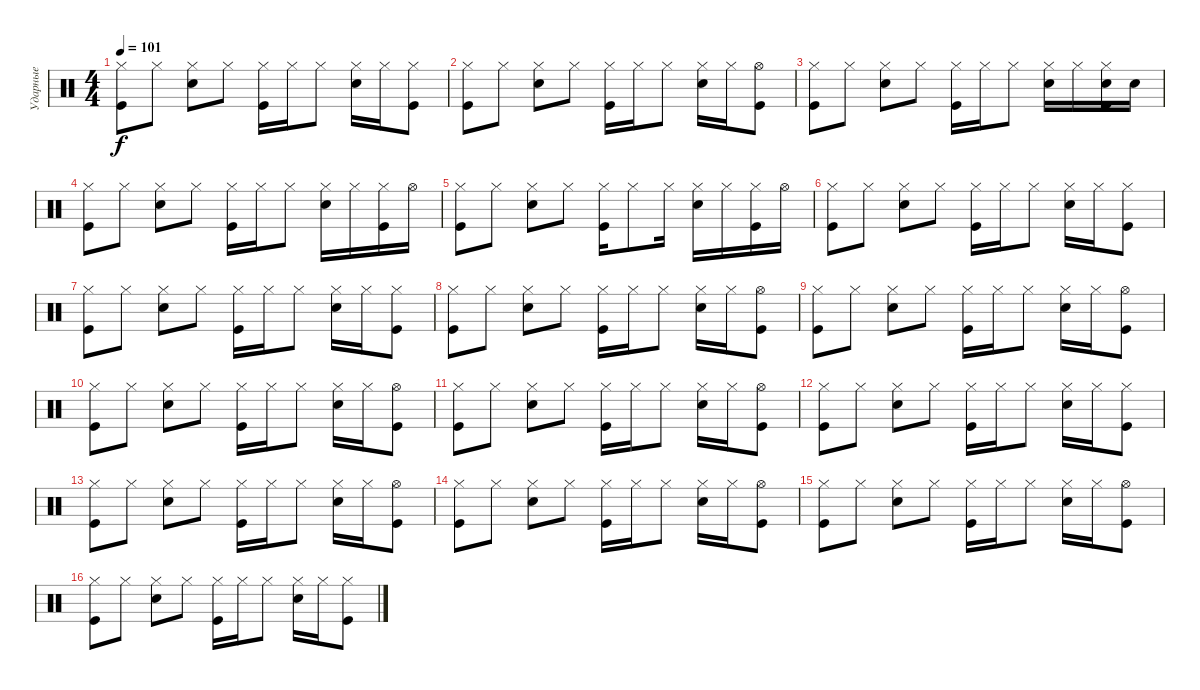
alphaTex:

\track ("Ударные" "Ударные") {instrument percussion}
\staff {score}
\articulation defaults
\ts (4 4)
\tempo 101
\clef neutral
\ks c
("Hi-Hat (closed)" "Kick (hit)").8{dy f} "Hi-Hat (closed)".8 ("Hi-Hat (closed)" "Snare (hit) 2").8 "Hi-Hat (closed)".8 ("Hi-Hat (closed)" "Kick (hit)").16 "Hi-Hat (closed)".16 "Hi-Hat (closed)".8 ("Snare (hit) 2" "Hi-Hat (closed)").16 "Hi-Hat (closed)".16 ("Hi-Hat (closed)" "Kick (hit)").8 |
("Hi-Hat (closed)" "Kick (hit)").8 "Hi-Hat (closed)".8 ("Hi-Hat (closed)" "Snare (hit) 2").8 "Hi-Hat (closed)".8 ("Hi-Hat (closed)" "Kick (hit)").16 "Hi-Hat (closed)".16 "Hi-Hat (closed)".8 ("Snare (hit) 2" "Hi-Hat (closed)").16 "Hi-Hat (closed)".16 ("Hi-Hat (open)" "Kick (hit)").8 |
("Hi-Hat (closed)" "Kick (hit)").8 "Hi-Hat (closed)".8 ("Hi-Hat (closed)" "Snare (hit) 2").8 "Hi-Hat (closed)".8 ("Hi-Hat (closed)" "Kick (hit)").16 "Hi-Hat (closed)".16 "Hi-Hat (closed)".8 ("Snare (hit) 2" "Hi-Hat (closed)").16 "Hi-Hat (closed)".16 ("Hi-Hat (closed)" "Snare (hit) 2" "Kick (hit)").16 "Snare (hit) 2".16 |
("Hi-Hat (closed)" "Kick (hit)").8 "Hi-Hat (closed)".8 ("Hi-Hat (closed)" "Snare (hit) 2").8 "Hi-Hat (closed)".8 ("Hi-Hat (closed)" "Kick (hit)").16 "Hi-Hat (closed)".16 "Hi-Hat (closed)".8 ("Snare (hit) 2" "Hi-Hat (closed)").16 "Hi-Hat (closed)".16 ("Hi-Hat (closed)" "Kick (hit)").16 "Hi-Hat (open)".16 |
("Hi-Hat (closed)" "Kick (hit)").8 "Hi-Hat (closed)".8 ("Hi-Hat (closed)" "Snare (hit) 2").8 "Hi-Hat (closed)".8 ("Hi-Hat (closed)" "Kick (hit)").16 "Hi-Hat (closed)".8 "Hi-Hat (closed)".16 ("Snare (hit) 2" "Hi-Hat (closed)").16 "Hi-Hat (closed)".16 ("Hi-Hat (closed)" "Kick (hit)").16 "Hi-Hat (open)".16 |
("Hi-Hat (closed)" "Kick (hit)").8 "Hi-Hat (closed)".8 ("Hi-Hat (closed)" "Snare (hit) 2").8 "Hi-Hat (closed)".8 ("Hi-Hat (closed)" "Kick (hit)").16 "Hi-Hat (closed)".16 "Hi-Hat (closed)".8 ("Snare (hit) 2" "Hi-Hat (closed)").16 "Hi-Hat (closed)".16 ("Hi-Hat (closed)" "Kick (hit)").8 |
("Hi-Hat (closed)" "Kick (hit)").8 "Hi-Hat (closed)".8 ("Hi-Hat (closed)" "Snare (hit) 2").8 "Hi-Hat (closed)".8 ("Hi-Hat (closed)" "Kick (hit)").16 "Hi-Hat (closed)".16 "Hi-Hat (closed)".8 ("Snare (hit) 2" "Hi-Hat (closed)").16 "Hi-Hat (closed)".16 ("Hi-Hat (closed)" "Kick (hit)").8 |
("Hi-Hat (closed)" "Kick (hit)").8 "Hi-Hat (closed)".8 ("Hi-Hat (closed)" "Snare (hit) 2").8 "Hi-Hat (closed)".8 ("Hi-Hat (closed)" "Kick (hit)").16 "Hi-Hat (closed)".16 "Hi-Hat (closed)".8 ("Snare (hit) 2" "Hi-Hat (closed)").16 "Hi-Hat (closed)".16 ("Hi-Hat (open)" "Kick (hit)").8 |
("Hi-Hat (closed)" "Kick (hit)").8 "Hi-Hat (closed)".8 ("Hi-Hat (closed)" "Snare (hit) 2").8 "Hi-Hat (closed)".8 ("Hi-Hat (closed)" "Kick (hit)").16 "Hi-Hat (closed)".16 "Hi-Hat (closed)".8 ("Snare (hit) 2" "Hi-Hat (closed)").16 "Hi-Hat (closed)".16 ("Hi-Hat (open)" "Kick (hit)").8 |
("Hi-Hat (closed)" "Kick (hit)").8 "Hi-Hat (closed)".8 ("Hi-Hat (closed)" "Snare (hit) 2").8 "Hi-Hat (closed)".8 ("Hi-Hat (closed)" "Kick (hit)").16 "Hi-Hat (closed)".16 "Hi-Hat (closed)".8 ("Snare (hit) 2" "Hi-Hat (closed)").16 "Hi-Hat (closed)".16 ("Hi-Hat (open)" "Kick (hit)").8 |
("Hi-Hat (closed)" "Kick (hit)").8 "Hi-Hat (closed)".8 ("Hi-Hat (closed)" "Snare (hit) 2").8 "Hi-Hat (closed)".8 ("Hi-Hat (closed)" "Kick (hit)").16 "Hi-Hat (closed)".16 "Hi-Hat (closed)".8 ("Snare (hit) 2" "Hi-Hat (closed)").16 "Hi-Hat (closed)".16 ("Hi-Hat (open)" "Kick (hit)").8 |
("Hi-Hat (closed)" "Kick (hit)").8 "Hi-Hat (closed)".8 ("Hi-Hat (closed)" "Snare (hit) 2").8 "Hi-Hat (closed)".8 ("Hi-Hat (closed)" "Kick (hit)").16 "Hi-Hat (closed)".16 "Hi-Hat (closed)".8 ("Snare (hit) 2" "Hi-Hat (closed)").16 "Hi-Hat (closed)".16 ("Hi-Hat (closed)" "Kick (hit)").8 |
("Hi-Hat (closed)" "Kick (hit)").8 "Hi-Hat (closed)".8 ("Hi-Hat (closed)" "Snare (hit) 2").8 "Hi-Hat (closed)".8 ("Hi-Hat (closed)" "Kick (hit)").16 "Hi-Hat (closed)".16 "Hi-Hat (closed)".8 ("Snare (hit) 2" "Hi-Hat (closed)").16 "Hi-Hat (closed)".16 ("Hi-Hat (open)" "Kick (hit)").8 |
("Hi-Hat (closed)" "Kick (hit)").8 "Hi-Hat (closed)".8 ("Hi-Hat (closed)" "Snare (hit) 2").8 "Hi-Hat (closed)".8 ("Hi-Hat (closed)" "Kick (hit)").16 "Hi-Hat (closed)".16 "Hi-Hat (closed)".8 ("Snare (hit) 2" "Hi-Hat (closed)").16 "Hi-Hat (closed)".16 ("Hi-Hat (open)" "Kick (hit)").8 |
("Hi-Hat (closed)" "Kick (hit)").8 "Hi-Hat (closed)".8 ("Hi-Hat (closed)" "Snare (hit) 2").8 "Hi-Hat (closed)".8 ("Hi-Hat (closed)" "Kick (hit)").16 "Hi-Hat (closed)".16 "Hi-Hat (closed)".8 ("Snare (hit) 2" "Hi-Hat (closed)").16 "Hi-Hat (closed)".16 ("Hi-Hat (open)" "Kick (hit)").8 |
("Hi-Hat (closed)" "Kick (hit)").8 "Hi-Hat (closed)".8 ("Hi-Hat (closed)" "Snare (hit) 2").8 "Hi-Hat (closed)".8 ("Hi-Hat (closed)" "Kick (hit)").16 "Hi-Hat (closed)".16 "Hi-Hat (closed)".8 ("Snare (hit) 2" "Hi-Hat (closed)").16 "Hi-Hat (closed)".16 ("Hi-Hat (closed)" "Kick (hit)").8
